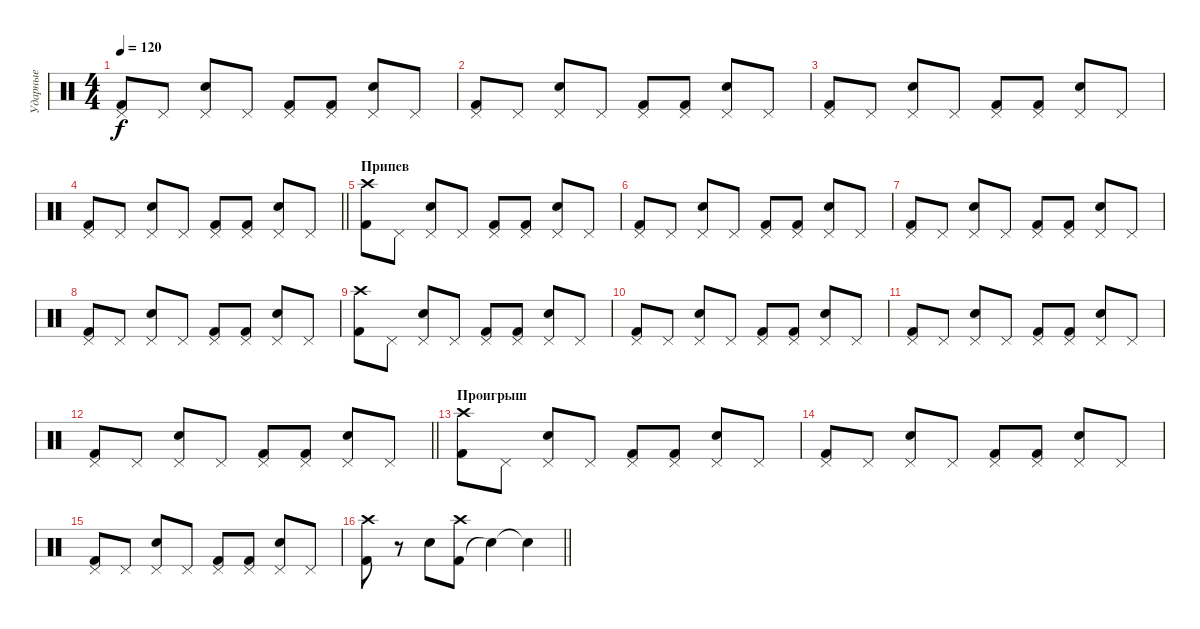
\track ("Ударные" "Ударные") {instrument percussion}
\staff {score}
\articulation defaults
\ts (4 4)
\tempo 120
\clef neutral
\ks c
("Kick (hit) 2" "Pedal Hi-Hat (hit)").8{dy f} "Pedal Hi-Hat (hit)".8 ("Electric Snare (hit)" "Pedal Hi-Hat (hit)").8 "Pedal Hi-Hat (hit)".8 ("Kick (hit) 2" "Pedal Hi-Hat (hit)").8 ("Kick (hit) 2" "Pedal Hi-Hat (hit)").8 ("Electric Snare (hit)" "Pedal Hi-Hat (hit)").8 "Pedal Hi-Hat (hit)".8 |
("Kick (hit) 2" "Pedal Hi-Hat (hit)").8 "Pedal Hi-Hat (hit)".8 ("Electric Snare (hit)" "Pedal Hi-Hat (hit)").8 "Pedal Hi-Hat (hit)".8 ("Kick (hit) 2" "Pedal Hi-Hat (hit)").8 ("Kick (hit) 2" "Pedal Hi-Hat (hit)").8 ("Electric Snare (hit)" "Pedal Hi-Hat (hit)").8 "Pedal Hi-Hat (hit)".8 |
("Kick (hit) 2" "Pedal Hi-Hat (hit)").8 "Pedal Hi-Hat (hit)".8 ("Electric Snare (hit)" "Pedal Hi-Hat (hit)").8 "Pedal Hi-Hat (hit)".8 ("Kick (hit) 2" "Pedal Hi-Hat (hit)").8 ("Kick (hit) 2" "Pedal Hi-Hat (hit)").8 ("Electric Snare (hit)" "Pedal Hi-Hat (hit)").8 "Pedal Hi-Hat (hit)".8 |
\barLineRight lightlight
("Kick (hit) 2" "Pedal Hi-Hat (hit)").8 "Pedal Hi-Hat (hit)".8 ("Electric Snare (hit)" "Pedal Hi-Hat (hit)").8 "Pedal Hi-Hat (hit)".8 ("Kick (hit) 2" "Pedal Hi-Hat (hit)").8 ("Kick (hit) 2" "Pedal Hi-Hat (hit)").8 ("Electric Snare (hit)" "Pedal Hi-Hat (hit)").8 "Pedal Hi-Hat (hit)".8 |
\section ("" "Припев")
("Kick (hit) 2" "Crash high (hit)").8 "Pedal Hi-Hat (hit)".8 ("Electric Snare (hit)" "Pedal Hi-Hat (hit)").8 "Pedal Hi-Hat (hit)".8 ("Kick (hit) 2" "Pedal Hi-Hat (hit)").8 ("Kick (hit) 2" "Pedal Hi-Hat (hit)").8 ("Electric Snare (hit)" "Pedal Hi-Hat (hit)").8 "Pedal Hi-Hat (hit)".8 |
("Kick (hit) 2" "Pedal Hi-Hat (hit)").8 "Pedal Hi-Hat (hit)".8 ("Electric Snare (hit)" "Pedal Hi-Hat (hit)").8 "Pedal Hi-Hat (hit)".8 ("Kick (hit) 2" "Pedal Hi-Hat (hit)").8 ("Kick (hit) 2" "Pedal Hi-Hat (hit)").8 ("Electric Snare (hit)" "Pedal Hi-Hat (hit)").8 "Pedal Hi-Hat (hit)".8 |
("Kick (hit) 2" "Pedal Hi-Hat (hit)").8 "Pedal Hi-Hat (hit)".8 ("Electric Snare (hit)" "Pedal Hi-Hat (hit)").8 "Pedal Hi-Hat (hit)".8 ("Kick (hit) 2" "Pedal Hi-Hat (hit)").8 ("Kick (hit) 2" "Pedal Hi-Hat (hit)").8 ("Electric Snare (hit)" "Pedal Hi-Hat (hit)").8 "Pedal Hi-Hat (hit)".8 |
("Kick (hit) 2" "Pedal Hi-Hat (hit)").8 "Pedal Hi-Hat (hit)".8 ("Electric Snare (hit)" "Pedal Hi-Hat (hit)").8 "Pedal Hi-Hat (hit)".8 ("Kick (hit) 2" "Pedal Hi-Hat (hit)").8 ("Kick (hit) 2" "Pedal Hi-Hat (hit)").8 ("Electric Snare (hit)" "Pedal Hi-Hat (hit)").8 "Pedal Hi-Hat (hit)".8 |
("Kick (hit) 2" "Crash high (hit)").8 "Pedal Hi-Hat (hit)".8 ("Electric Snare (hit)" "Pedal Hi-Hat (hit)").8 "Pedal Hi-Hat (hit)".8 ("Kick (hit) 2" "Pedal Hi-Hat (hit)").8 ("Kick (hit) 2" "Pedal Hi-Hat (hit)").8 ("Electric Snare (hit)" "Pedal Hi-Hat (hit)").8 "Pedal Hi-Hat (hit)".8 |
("Kick (hit) 2" "Pedal Hi-Hat (hit)").8 "Pedal Hi-Hat (hit)".8 ("Electric Snare (hit)" "Pedal Hi-Hat (hit)").8 "Pedal Hi-Hat (hit)".8 ("Kick (hit) 2" "Pedal Hi-Hat (hit)").8 ("Kick (hit) 2" "Pedal Hi-Hat (hit)").8 ("Electric Snare (hit)" "Pedal Hi-Hat (hit)").8 "Pedal Hi-Hat (hit)".8 |
("Kick (hit) 2" "Pedal Hi-Hat (hit)").8 "Pedal Hi-Hat (hit)".8 ("Electric Snare (hit)" "Pedal Hi-Hat (hit)").8 "Pedal Hi-Hat (hit)".8 ("Kick (hit) 2" "Pedal Hi-Hat (hit)").8 ("Kick (hit) 2" "Pedal Hi-Hat (hit)").8 ("Electric Snare (hit)" "Pedal Hi-Hat (hit)").8 "Pedal Hi-Hat (hit)".8 |
\barLineRight lightlight
("Kick (hit) 2" "Pedal Hi-Hat (hit)").8 "Pedal Hi-Hat (hit)".8 ("Electric Snare (hit)" "Pedal Hi-Hat (hit)").8 "Pedal Hi-Hat (hit)".8 ("Kick (hit) 2" "Pedal Hi-Hat (hit)").8 ("Kick (hit) 2" "Pedal Hi-Hat (hit)").8 ("Electric Snare (hit)" "Pedal Hi-Hat (hit)").8 "Pedal Hi-Hat (hit)".8 |
\section ("" "Проигрыш")
("Kick (hit) 2" "Crash high (hit)").8 "Pedal Hi-Hat (hit)".8 ("Electric Snare (hit)" "Pedal Hi-Hat (hit)").8 "Pedal Hi-Hat (hit)".8 ("Kick (hit) 2" "Pedal Hi-Hat (hit)").8 ("Kick (hit) 2" "Pedal Hi-Hat (hit)").8 ("Electric Snare (hit)" "Pedal Hi-Hat (hit)").8 "Pedal Hi-Hat (hit)".8 |
("Kick (hit) 2" "Pedal Hi-Hat (hit)").8 "Pedal Hi-Hat (hit)".8 ("Electric Snare (hit)" "Pedal Hi-Hat (hit)").8 "Pedal Hi-Hat (hit)".8 ("Kick (hit) 2" "Pedal Hi-Hat (hit)").8 ("Kick (hit) 2" "Pedal Hi-Hat (hit)").8 ("Electric Snare (hit)" "Pedal Hi-Hat (hit)").8 "Pedal Hi-Hat (hit)".8 |
("Kick (hit) 2" "Pedal Hi-Hat (hit)").8 "Pedal Hi-Hat (hit)".8 ("Electric Snare (hit)" "Pedal Hi-Hat (hit)").8 "Pedal Hi-Hat (hit)".8 ("Kick (hit) 2" "Pedal Hi-Hat (hit)").8 ("Kick (hit) 2" "Pedal Hi-Hat (hit)").8 ("Electric Snare (hit)" "Pedal Hi-Hat (hit)").8 "Pedal Hi-Hat (hit)".8 |
\barLineRight lightlight
("Kick (hit) 2" "Crash high (hit)").8 r.8 "Electric Snare (hit)".8 ("Kick (hit) 2" "Crash high (hit)").8 "Snare (hit)"{t}.4 "Snare (hit)"{t}.4
